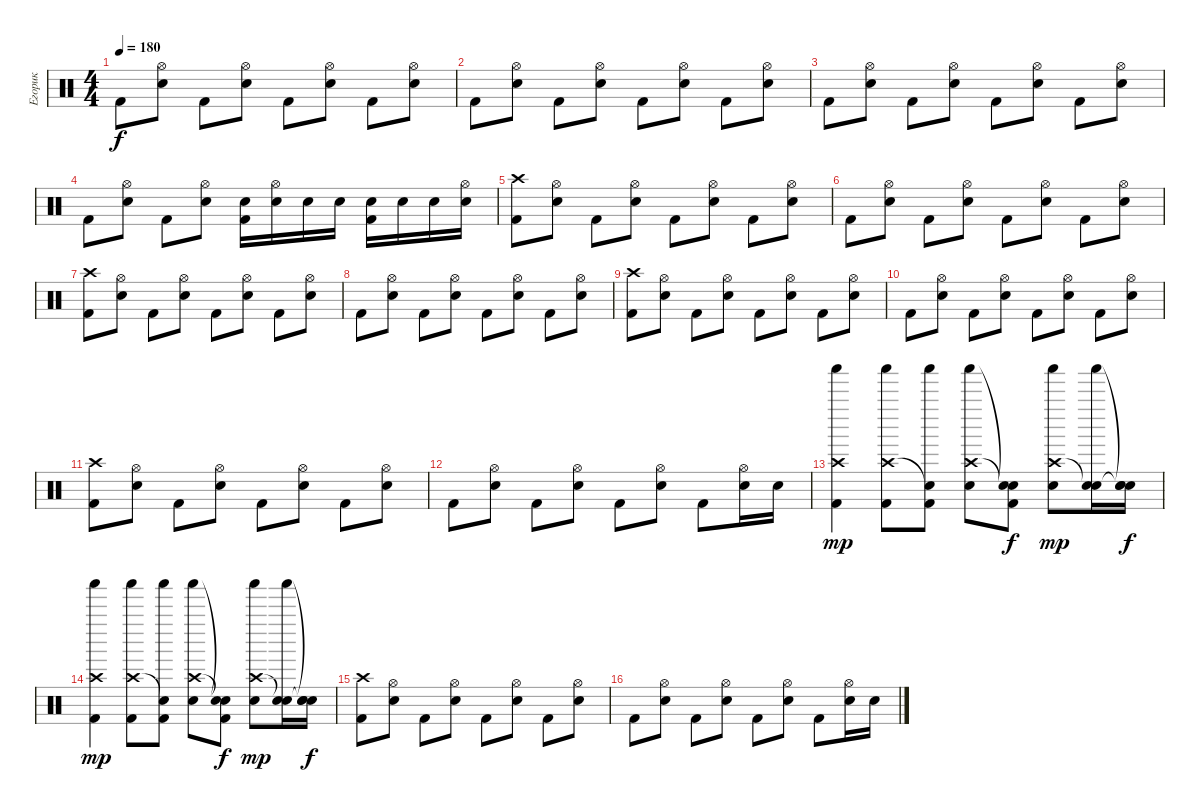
\track ("Егорик" "Егорик") {instrument percussion}
\staff {score}
\articulation defaults
\ts (4 4)
\tempo 180
\clef neutral
\ks c "Kick (hit) 2".8{dy f}
("Hi-Hat (open)" "Electric Snare (hit)").8 "Kick (hit) 2".8 ("Hi-Hat (open)" "Electric Snare (hit)").8 "Kick (hit) 2".8 ("Hi-Hat (open)" "Electric Snare (hit)").8 "Kick (hit) 2".8 ("Hi-Hat (open)" "Electric Snare (hit)").8 |
"Kick (hit) 2".8 ("Hi-Hat (open)" "Electric Snare (hit)").8 "Kick (hit) 2".8 ("Hi-Hat (open)" "Electric Snare (hit)").8 "Kick (hit) 2".8 ("Hi-Hat (open)" "Electric Snare (hit)").8 "Kick (hit) 2".8 ("Hi-Hat (open)" "Electric Snare (hit)").8 |
"Kick (hit) 2".8 ("Hi-Hat (open)" "Electric Snare (hit)").8 "Kick (hit) 2".8 ("Hi-Hat (open)" "Electric Snare (hit)").8 "Kick (hit) 2".8 ("Hi-Hat (open)" "Electric Snare (hit)").8 "Kick (hit) 2".8 ("Hi-Hat (open)" "Electric Snare (hit)").8 |
"Kick (hit) 2".8 ("Hi-Hat (open)" "Electric Snare (hit)").8 "Kick (hit) 2".8 ("Hi-Hat (open)" "Electric Snare (hit)").8 ("Electric Snare (hit)" "Kick (hit) 2").16 ("Hi-Hat (open)" "Electric Snare (hit)").16 "Electric Snare (hit)".16 "Electric Snare (hit)".16 ("Electric Snare (hit)" "Kick (hit) 2").16 "Electric Snare (hit)".16 "Electric Snare (hit)".16 ("Hi-Hat (open)" "Electric Snare (hit)").16 |
("Crash high (hit)" "Kick (hit) 2").8 ("Hi-Hat (open)" "Electric Snare (hit)").8 "Kick (hit) 2".8 ("Hi-Hat (open)" "Electric Snare (hit)").8 "Kick (hit) 2".8 ("Hi-Hat (open)" "Electric Snare (hit)").8 "Kick (hit) 2".8 ("Hi-Hat (open)" "Electric Snare (hit)").8 |
"Kick (hit) 2".8 ("Hi-Hat (open)" "Electric Snare (hit)").8 "Kick (hit) 2".8 ("Hi-Hat (open)" "Electric Snare (hit)").8 "Kick (hit) 2".8 ("Hi-Hat (open)" "Electric Snare (hit)").8 "Kick (hit) 2".8 ("Hi-Hat (open)" "Electric Snare (hit)").8 |
("Crash high (hit)" "Kick (hit) 2").8 ("Hi-Hat (open)" "Electric Snare (hit)").8 "Kick (hit) 2".8 ("Hi-Hat (open)" "Electric Snare (hit)").8 "Kick (hit) 2".8 ("Hi-Hat (open)" "Electric Snare (hit)").8 "Kick (hit) 2".8 ("Hi-Hat (open)" "Electric Snare (hit)").8 |
"Kick (hit) 2".8 ("Hi-Hat (open)" "Electric Snare (hit)").8 "Kick (hit) 2".8 ("Hi-Hat (open)" "Electric Snare (hit)").8 "Kick (hit) 2".8 ("Hi-Hat (open)" "Electric Snare (hit)").8 "Kick (hit) 2".8 ("Hi-Hat (open)" "Electric Snare (hit)").8 |
("Crash high (hit)" "Kick (hit) 2").8 ("Hi-Hat (open)" "Electric Snare (hit)").8 "Kick (hit) 2".8 ("Hi-Hat (open)" "Electric Snare (hit)").8 "Kick (hit) 2".8 ("Hi-Hat (open)" "Electric Snare (hit)").8 "Kick (hit) 2".8 ("Hi-Hat (open)" "Electric Snare (hit)").8 |
"Kick (hit) 2".8 ("Hi-Hat (open)" "Electric Snare (hit)").8 "Kick (hit) 2".8 ("Hi-Hat (open)" "Electric Snare (hit)").8 "Kick (hit) 2".8 ("Hi-Hat (open)" "Electric Snare (hit)").8 "Kick (hit) 2".8 ("Hi-Hat (open)" "Electric Snare (hit)").8 |
("Crash high (hit)" "Kick (hit) 2").8 ("Hi-Hat (open)" "Electric Snare (hit)").8 "Kick (hit) 2".8 ("Hi-Hat (open)" "Electric Snare (hit)").8 "Kick (hit) 2".8 ("Hi-Hat (open)" "Electric Snare (hit)").8 "Kick (hit) 2".8 ("Hi-Hat (open)" "Electric Snare (hit)").8 |
"Kick (hit) 2".8 ("Hi-Hat (open)" "Electric Snare (hit)").8 "Kick (hit) 2".8 ("Hi-Hat (open)" "Electric Snare (hit)").8 "Kick (hit) 2".8 ("Hi-Hat (open)" "Electric Snare (hit)").8 "Kick (hit) 2".8 ("Hi-Hat (open)" "Electric Snare (hit)").16 "Electric Snare (hit)".16 |
("Crash high (hit)" "Shaker (hit)" "Kick (hit) 2").4{dy mp} ("Crash high (hit)" "Shaker (hit)" "Kick (hit) 2").8 ("Snare (hit)"{t} "Shaker (hit)" "Kick (hit) 2").8 ("Crash high (hit)" "Shaker (hit)" "Snare (hit) 2").8 ("Snare (hit)"{t} "Snare (hit)"{t} "Kick (hit) 2").8{dy f} ("Crash high (hit)" "Shaker (hit)" "Snare (hit) 2").8{dy mp} ("Snare (hit)"{t} "Shaker (hit)" "Snare (hit) 2").16 ("Snare (hit)"{t} "Snare (hit)"{t} "Snare (hit) 2").16{dy f} |
("Crash high (hit)" "Shaker (hit)" "Kick (hit) 2").4{dy mp} ("Crash high (hit)" "Shaker (hit)" "Kick (hit) 2").8 ("Snare (hit)"{t} "Shaker (hit)" "Kick (hit) 2").8 ("Crash high (hit)" "Shaker (hit)" "Snare (hit) 2").8 ("Snare (hit)"{t} "Snare (hit)"{t} "Kick (hit) 2").8{dy f} ("Crash high (hit)" "Shaker (hit)" "Snare (hit) 2").8{dy mp} ("Snare (hit)"{t} "Shaker (hit)" "Snare (hit) 2").16 ("Snare (hit)"{t} "Snare (hit)"{t} "Snare (hit) 2").16{dy f} |
("Crash high (hit)" "Kick (hit) 2").8 ("Hi-Hat (open)" "Electric Snare (hit)").8 "Kick (hit) 2".8 ("Hi-Hat (open)" "Electric Snare (hit)").8 "Kick (hit) 2".8 ("Hi-Hat (open)" "Electric Snare (hit)").8 "Kick (hit) 2".8 ("Hi-Hat (open)" "Electric Snare (hit)").8 |
"Kick (hit) 2".8 ("Hi-Hat (open)" "Electric Snare (hit)").8 "Kick (hit) 2".8 ("Hi-Hat (open)" "Electric Snare (hit)").8 "Kick (hit) 2".8 ("Hi-Hat (open)" "Electric Snare (hit)").8 "Kick (hit) 2".8 ("Hi-Hat (open)" "Electric Snare (hit)").16 "Electric Snare (hit)".16
